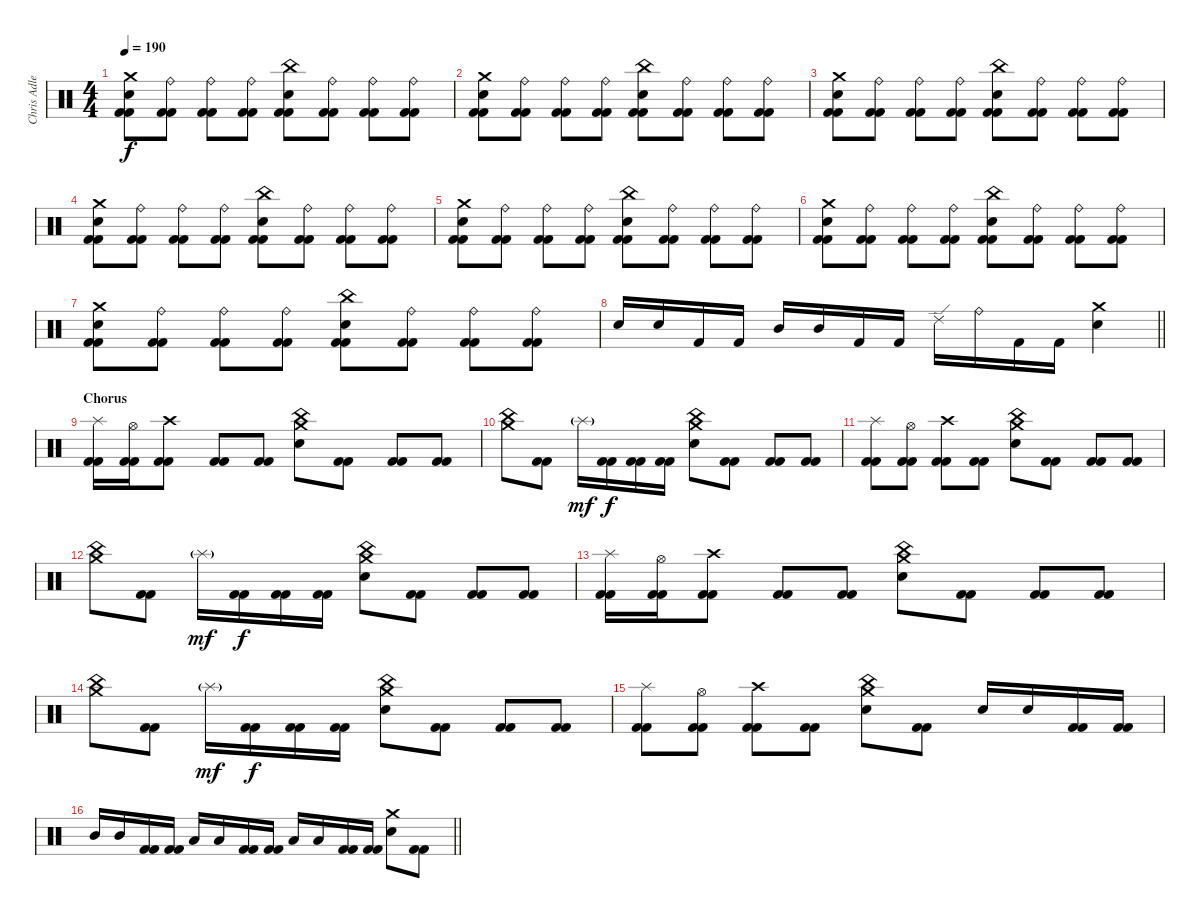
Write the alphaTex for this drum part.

\track ("Chris Adler" "Chris Adle") {instrument percussion}
\staff {score}
\articulation defaults
\ts (4 4)
\tempo 190
\clef neutral
\ks c
("Crash medium (hit)" "Snare (hit) 2" "Kick (hit) 2" "Kick (hit) 2").8{dy f} ("Ride (bell)" "Kick (hit) 2" "Kick (hit) 2").8 ("Ride (bell)" "Kick (hit) 2" "Kick (hit) 2").8 ("Ride (bell)" "Kick (hit) 2" "Kick (hit) 2").8 ("China (hit)" "Snare (hit) 2" "Kick (hit) 2" "Kick (hit) 2").8 ("Ride (bell)" "Kick (hit) 2" "Kick (hit) 2").8 ("Ride (bell)" "Kick (hit) 2" "Kick (hit) 2").8 ("Ride (bell)" "Kick (hit) 2" "Kick (hit) 2").8 |
("Crash medium (hit)" "Snare (hit) 2" "Kick (hit) 2" "Kick (hit) 2").8 ("Ride (bell)" "Kick (hit) 2" "Kick (hit) 2").8 ("Ride (bell)" "Kick (hit) 2" "Kick (hit) 2").8 ("Ride (bell)" "Kick (hit) 2" "Kick (hit) 2").8 ("China (hit)" "Snare (hit) 2" "Kick (hit) 2" "Kick (hit) 2").8 ("Ride (bell)" "Kick (hit) 2" "Kick (hit) 2").8 ("Ride (bell)" "Kick (hit) 2" "Kick (hit) 2").8 ("Ride (bell)" "Kick (hit) 2" "Kick (hit) 2").8 |
("Crash medium (hit)" "Snare (hit) 2" "Kick (hit) 2" "Kick (hit) 2").8 ("Ride (bell)" "Kick (hit) 2" "Kick (hit) 2").8 ("Ride (bell)" "Kick (hit) 2" "Kick (hit) 2").8 ("Ride (bell)" "Kick (hit) 2" "Kick (hit) 2").8 ("China (hit)" "Snare (hit) 2" "Kick (hit) 2" "Kick (hit) 2").8 ("Ride (bell)" "Kick (hit) 2" "Kick (hit) 2").8 ("Ride (bell)" "Kick (hit) 2" "Kick (hit) 2").8 ("Ride (bell)" "Kick (hit) 2" "Kick (hit) 2").8 |
("Crash medium (hit)" "Snare (hit) 2" "Kick (hit) 2" "Kick (hit) 2").8 ("Ride (bell)" "Kick (hit) 2" "Kick (hit) 2").8 ("Ride (bell)" "Kick (hit) 2" "Kick (hit) 2").8 ("Ride (bell)" "Kick (hit) 2" "Kick (hit) 2").8 ("China (hit)" "Snare (hit) 2" "Kick (hit) 2" "Kick (hit) 2").8 ("Ride (bell)" "Kick (hit) 2" "Kick (hit) 2").8 ("Ride (bell)" "Kick (hit) 2" "Kick (hit) 2").8 ("Ride (bell)" "Kick (hit) 2" "Kick (hit) 2").8 |
("Crash medium (hit)" "Snare (hit) 2" "Kick (hit) 2" "Kick (hit) 2").8 ("Ride (bell)" "Kick (hit) 2" "Kick (hit) 2").8 ("Ride (bell)" "Kick (hit) 2" "Kick (hit) 2").8 ("Ride (bell)" "Kick (hit) 2" "Kick (hit) 2").8 ("China (hit)" "Snare (hit) 2" "Kick (hit) 2" "Kick (hit) 2").8 ("Ride (bell)" "Kick (hit) 2" "Kick (hit) 2").8 ("Ride (bell)" "Kick (hit) 2" "Kick (hit) 2").8 ("Ride (bell)" "Kick (hit) 2" "Kick (hit) 2").8 |
("Crash medium (hit)" "Snare (hit) 2" "Kick (hit) 2" "Kick (hit) 2").8 ("Ride (bell)" "Kick (hit) 2" "Kick (hit) 2").8 ("Ride (bell)" "Kick (hit) 2" "Kick (hit) 2").8 ("Ride (bell)" "Kick (hit) 2" "Kick (hit) 2").8 ("China (hit)" "Snare (hit) 2" "Kick (hit) 2" "Kick (hit) 2").8 ("Ride (bell)" "Kick (hit) 2" "Kick (hit) 2").8 ("Ride (bell)" "Kick (hit) 2" "Kick (hit) 2").8 ("Ride (bell)" "Kick (hit) 2" "Kick (hit) 2").8 |
("Crash medium (hit)" "Snare (hit) 2" "Kick (hit) 2" "Kick (hit) 2").8 ("Ride (bell)" "Kick (hit) 2" "Kick (hit) 2").8 ("Ride (bell)" "Kick (hit) 2" "Kick (hit) 2").8 ("Ride (bell)" "Kick (hit) 2" "Kick (hit) 2").8 ("China (hit)" "Snare (hit) 2" "Kick (hit) 2" "Kick (hit) 2").8 ("Ride (bell)" "Kick (hit) 2" "Kick (hit) 2").8 ("Ride (bell)" "Kick (hit) 2" "Kick (hit) 2").8 ("Ride (bell)" "Kick (hit) 2" "Kick (hit) 2").8 |
\barLineRight lightlight "Snare (hit) 2".16 "Snare (hit) 2".16 "Kick (hit) 2".16 "Kick (hit) 2".16 "Mid Tom (hit)".16 "Mid Tom (hit)".16 "Kick (hit) 2".16 "Kick (hit) 2".16 "Ride (edge) 2".16 "Ride (bell)".16 "Kick (hit) 2".16 "Kick (hit) 2".16
("Snare (hit) 2" "Crash medium (hit)").4 |
\section ("" "Chorus")
("Splash (hit)" "Kick (hit) 2" "Kick (hit) 2").16 ("Hi-Hat (open)" "Kick (hit) 2" "Kick (hit) 2").16 ("Crash high (hit)" "Kick (hit) 2" "Kick (hit) 2").8 ("Kick (hit) 2" "Kick (hit) 2").8 ("Kick (hit) 2" "Kick (hit) 2").8 ("Crash medium (hit)" "China (hit)" "Snare (hit) 2").8 ("Kick (hit) 2" "Kick (hit) 2").8 ("Kick (hit) 2" "Kick (hit) 2").8 ("Kick (hit) 2" "Kick (hit) 2").8 |
("Crash medium (hit)" "China (hit)").8 ("Kick (hit) 2" "Kick (hit) 2").8 "Splash (hit)"{g}.16{dy mf} ("Kick (hit) 2" "Kick (hit) 2").16{dy f} ("Kick (hit) 2" "Kick (hit) 2").16 ("Kick (hit) 2" "Kick (hit) 2").16 ("Crash medium (hit)" "China (hit)" "Snare (hit) 2").8 ("Kick (hit) 2" "Kick (hit) 2").8 ("Kick (hit) 2" "Kick (hit) 2").8 ("Kick (hit) 2" "Kick (hit) 2").8 |
("Splash (hit)" "Kick (hit) 2" "Kick (hit) 2").8 ("Hi-Hat (open)" "Kick (hit) 2" "Kick (hit) 2").8 ("Crash high (hit)" "Kick (hit) 2" "Kick (hit) 2").8 ("Kick (hit) 2" "Kick (hit) 2").8 ("Crash medium (hit)" "China (hit)" "Snare (hit) 2").8 ("Kick (hit) 2" "Kick (hit) 2").8 ("Kick (hit) 2" "Kick (hit) 2").8 ("Kick (hit) 2" "Kick (hit) 2").8 |
("Crash medium (hit)" "China (hit)").8 ("Kick (hit) 2" "Kick (hit) 2").8 "Splash (hit)"{g}.16{dy mf} ("Kick (hit) 2" "Kick (hit) 2").16{dy f} ("Kick (hit) 2" "Kick (hit) 2").16 ("Kick (hit) 2" "Kick (hit) 2").16 ("Crash medium (hit)" "China (hit)" "Snare (hit) 2").8 ("Kick (hit) 2" "Kick (hit) 2").8 ("Kick (hit) 2" "Kick (hit) 2").8 ("Kick (hit) 2" "Kick (hit) 2").8 |
("Splash (hit)" "Kick (hit) 2" "Kick (hit) 2").16 ("Hi-Hat (open)" "Kick (hit) 2" "Kick (hit) 2").16 ("Crash high (hit)" "Kick (hit) 2" "Kick (hit) 2").8 ("Kick (hit) 2" "Kick (hit) 2").8 ("Kick (hit) 2" "Kick (hit) 2").8 ("Crash medium (hit)" "China (hit)" "Snare (hit) 2").8 ("Kick (hit) 2" "Kick (hit) 2").8 ("Kick (hit) 2" "Kick (hit) 2").8 ("Kick (hit) 2" "Kick (hit) 2").8 |
("Crash medium (hit)" "China (hit)").8 ("Kick (hit) 2" "Kick (hit) 2").8 "Splash (hit)"{g}.16{dy mf} ("Kick (hit) 2" "Kick (hit) 2").16{dy f} ("Kick (hit) 2" "Kick (hit) 2").16 ("Kick (hit) 2" "Kick (hit) 2").16 ("Crash medium (hit)" "China (hit)" "Snare (hit) 2").8 ("Kick (hit) 2" "Kick (hit) 2").8 ("Kick (hit) 2" "Kick (hit) 2").8 ("Kick (hit) 2" "Kick (hit) 2").8 |
("Splash (hit)" "Kick (hit) 2" "Kick (hit) 2").8 ("Hi-Hat (open)" "Kick (hit) 2" "Kick (hit) 2").8 ("Crash high (hit)" "Kick (hit) 2" "Kick (hit) 2").8 ("Kick (hit) 2" "Kick (hit) 2").8 ("Crash medium (hit)" "China (hit)" "Snare (hit) 2").8 ("Kick (hit) 2" "Kick (hit) 2").8 "Snare (hit) 2".16 "Snare (hit) 2".16 ("Kick (hit) 2" "Kick (hit) 2").16 ("Kick (hit) 2" "Kick (hit) 2").16 |
\barLineRight lightlight "Mid Tom (hit)".16 "Mid Tom (hit)".16
("Kick (hit) 2" "Kick (hit) 2").16 ("Kick (hit) 2" "Kick (hit) 2").16 "Low Tom (hit)".16 "Low Tom (hit)".16 ("Kick (hit) 2" "Kick (hit) 2").16 ("Kick (hit) 2" "Kick (hit) 2").16 "Low Floor Tom (hit)".16 "Low Floor Tom (hit)".16 ("Kick (hit) 2" "Kick (hit) 2").16 ("Kick (hit) 2" "Kick (hit) 2").16 ("Crash medium (hit)" "Snare (hit) 2").8 ("Kick (hit) 2" "Kick (hit) 2").8
